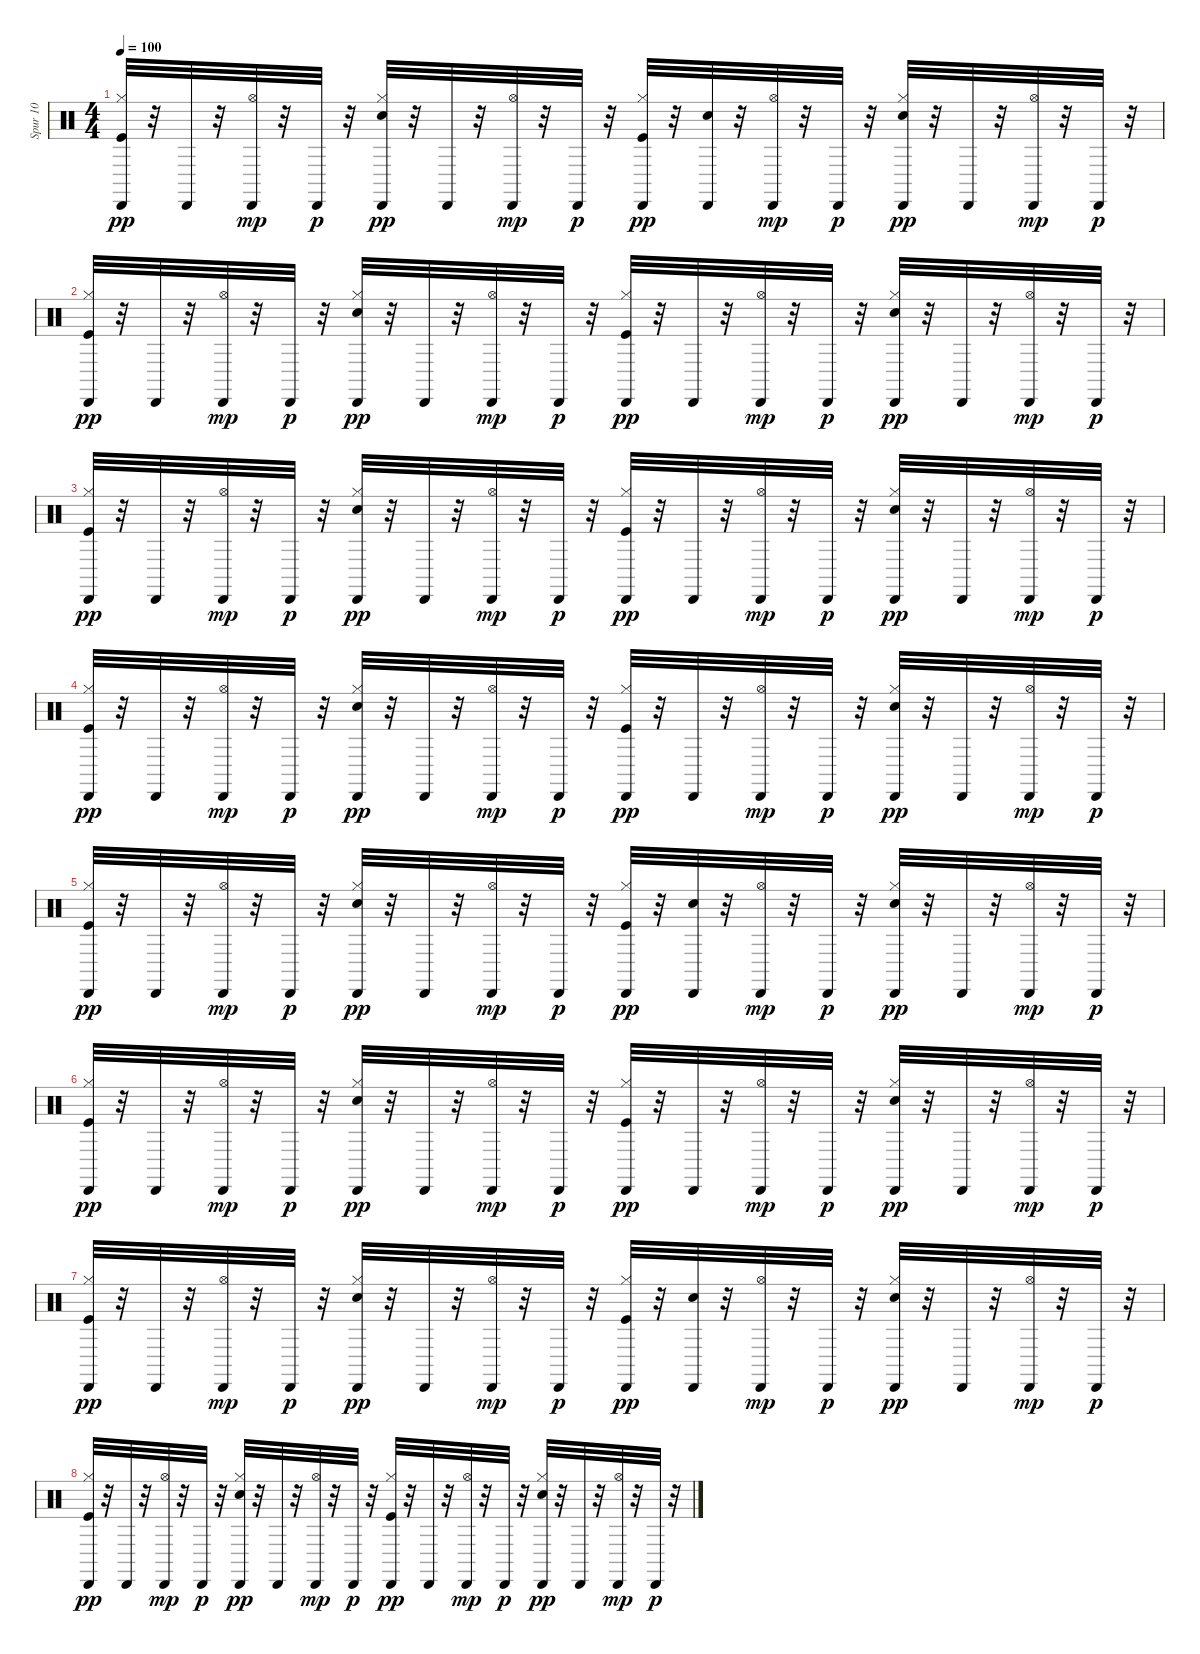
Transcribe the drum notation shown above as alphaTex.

\track ("Spur 10" "Spur 10") {instrument percussion}
\staff {score}
\articulation defaults
\ts (4 4)
\tempo 100
\clef neutral
\ks c
("Kick (hit)" "Hi-Hat (closed)" "Cabasa (hit)").32{dy pp} r.32 "Cabasa (hit)".32 r.32 ("Hi-Hat (open)" "Cabasa (hit)").32{dy mp} r.32 "Cabasa (hit)".32{dy p} r.32 ("Electric Snare (hit)" "Hi-Hat (closed)" "Cabasa (hit)").32{dy pp} r.32 "Cabasa (hit)".32 r.32 ("Hi-Hat (open)" "Cabasa (hit)").32{dy mp} r.32 "Cabasa (hit)".32{dy p} r.32 ("Kick (hit)" "Hi-Hat (closed)" "Cabasa (hit)").32{dy pp} r.32 ("Electric Snare (hit)" "Cabasa (hit)").32 r.32 ("Hi-Hat (open)" "Cabasa (hit)").32{dy mp} r.32 "Cabasa (hit)".32{dy p} r.32 ("Electric Snare (hit)" "Hi-Hat (closed)" "Cabasa (hit)").32{dy pp} r.32 "Cabasa (hit)".32 r.32 ("Hi-Hat (open)" "Cabasa (hit)").32{dy mp} r.32 "Cabasa (hit)".32{dy p} r.32 |
("Kick (hit)" "Hi-Hat (closed)" "Cabasa (hit)").32{dy pp} r.32 "Cabasa (hit)".32 r.32 ("Hi-Hat (open)" "Cabasa (hit)").32{dy mp} r.32 "Cabasa (hit)".32{dy p} r.32 ("Electric Snare (hit)" "Hi-Hat (closed)" "Cabasa (hit)").32{dy pp} r.32 "Cabasa (hit)".32 r.32 ("Hi-Hat (open)" "Cabasa (hit)").32{dy mp} r.32 "Cabasa (hit)".32{dy p} r.32 ("Kick (hit)" "Hi-Hat (closed)" "Cabasa (hit)").32{dy pp} r.32 "Cabasa (hit)".32 r.32 ("Hi-Hat (open)" "Cabasa (hit)").32{dy mp} r.32 "Cabasa (hit)".32{dy p} r.32 ("Electric Snare (hit)" "Hi-Hat (closed)" "Cabasa (hit)").32{dy pp} r.32 "Cabasa (hit)".32 r.32 ("Hi-Hat (open)" "Cabasa (hit)").32{dy mp} r.32 "Cabasa (hit)".32{dy p} r.32 |
("Kick (hit)" "Hi-Hat (closed)" "Cabasa (hit)").32{dy pp} r.32 "Cabasa (hit)".32 r.32 ("Hi-Hat (open)" "Cabasa (hit)").32{dy mp} r.32 "Cabasa (hit)".32{dy p} r.32 ("Electric Snare (hit)" "Hi-Hat (closed)" "Cabasa (hit)").32{dy pp} r.32 "Cabasa (hit)".32 r.32 ("Hi-Hat (open)" "Cabasa (hit)").32{dy mp} r.32 "Cabasa (hit)".32{dy p} r.32 ("Kick (hit)" "Hi-Hat (closed)" "Cabasa (hit)").32{dy pp} r.32 "Cabasa (hit)".32 r.32 ("Hi-Hat (open)" "Cabasa (hit)").32{dy mp} r.32 "Cabasa (hit)".32{dy p} r.32 ("Electric Snare (hit)" "Hi-Hat (closed)" "Cabasa (hit)").32{dy pp} r.32 "Cabasa (hit)".32 r.32 ("Hi-Hat (open)" "Cabasa (hit)").32{dy mp} r.32 "Cabasa (hit)".32{dy p} r.32 |
("Kick (hit)" "Hi-Hat (closed)" "Cabasa (hit)").32{dy pp} r.32 "Cabasa (hit)".32 r.32 ("Hi-Hat (open)" "Cabasa (hit)").32{dy mp} r.32 "Cabasa (hit)".32{dy p} r.32 ("Electric Snare (hit)" "Hi-Hat (closed)" "Cabasa (hit)").32{dy pp} r.32 "Cabasa (hit)".32 r.32 ("Hi-Hat (open)" "Cabasa (hit)").32{dy mp} r.32 "Cabasa (hit)".32{dy p} r.32 ("Kick (hit)" "Hi-Hat (closed)" "Cabasa (hit)").32{dy pp} r.32 "Cabasa (hit)".32 r.32 ("Hi-Hat (open)" "Cabasa (hit)").32{dy mp} r.32 "Cabasa (hit)".32{dy p} r.32 ("Electric Snare (hit)" "Hi-Hat (closed)" "Cabasa (hit)").32{dy pp} r.32 "Cabasa (hit)".32 r.32 ("Hi-Hat (open)" "Cabasa (hit)").32{dy mp} r.32 "Cabasa (hit)".32{dy p} r.32 |
("Kick (hit)" "Hi-Hat (closed)" "Cabasa (hit)").32{dy pp} r.32 "Cabasa (hit)".32 r.32 ("Hi-Hat (open)" "Cabasa (hit)").32{dy mp} r.32 "Cabasa (hit)".32{dy p} r.32 ("Electric Snare (hit)" "Hi-Hat (closed)" "Cabasa (hit)").32{dy pp} r.32 "Cabasa (hit)".32 r.32 ("Hi-Hat (open)" "Cabasa (hit)").32{dy mp} r.32 "Cabasa (hit)".32{dy p} r.32 ("Kick (hit)" "Hi-Hat (closed)" "Cabasa (hit)").32{dy pp} r.32 ("Electric Snare (hit)" "Cabasa (hit)").32 r.32 ("Hi-Hat (open)" "Cabasa (hit)").32{dy mp} r.32 "Cabasa (hit)".32{dy p} r.32 ("Electric Snare (hit)" "Hi-Hat (closed)" "Cabasa (hit)").32{dy pp} r.32 "Cabasa (hit)".32 r.32 ("Hi-Hat (open)" "Cabasa (hit)").32{dy mp} r.32 "Cabasa (hit)".32{dy p} r.32 |
("Kick (hit)" "Hi-Hat (closed)" "Cabasa (hit)").32{dy pp} r.32 "Cabasa (hit)".32 r.32 ("Hi-Hat (open)" "Cabasa (hit)").32{dy mp} r.32 "Cabasa (hit)".32{dy p} r.32 ("Electric Snare (hit)" "Hi-Hat (closed)" "Cabasa (hit)").32{dy pp} r.32 "Cabasa (hit)".32 r.32 ("Hi-Hat (open)" "Cabasa (hit)").32{dy mp} r.32 "Cabasa (hit)".32{dy p} r.32 ("Kick (hit)" "Hi-Hat (closed)" "Cabasa (hit)").32{dy pp} r.32 "Cabasa (hit)".32 r.32 ("Hi-Hat (open)" "Cabasa (hit)").32{dy mp} r.32 "Cabasa (hit)".32{dy p} r.32 ("Electric Snare (hit)" "Hi-Hat (closed)" "Cabasa (hit)").32{dy pp} r.32 "Cabasa (hit)".32 r.32 ("Hi-Hat (open)" "Cabasa (hit)").32{dy mp} r.32 "Cabasa (hit)".32{dy p} r.32 |
("Kick (hit)" "Hi-Hat (closed)" "Cabasa (hit)").32{dy pp} r.32 "Cabasa (hit)".32 r.32 ("Hi-Hat (open)" "Cabasa (hit)").32{dy mp} r.32 "Cabasa (hit)".32{dy p} r.32 ("Electric Snare (hit)" "Hi-Hat (closed)" "Cabasa (hit)").32{dy pp} r.32 "Cabasa (hit)".32 r.32 ("Hi-Hat (open)" "Cabasa (hit)").32{dy mp} r.32 "Cabasa (hit)".32{dy p} r.32 ("Kick (hit)" "Hi-Hat (closed)" "Cabasa (hit)").32{dy pp} r.32 ("Electric Snare (hit)" "Cabasa (hit)").32 r.32 ("Hi-Hat (open)" "Cabasa (hit)").32{dy mp} r.32 "Cabasa (hit)".32{dy p} r.32 ("Electric Snare (hit)" "Hi-Hat (closed)" "Cabasa (hit)").32{dy pp} r.32 "Cabasa (hit)".32 r.32 ("Hi-Hat (open)" "Cabasa (hit)").32{dy mp} r.32 "Cabasa (hit)".32{dy p} r.32 |
("Kick (hit)" "Hi-Hat (closed)" "Cabasa (hit)").32{dy pp} r.32 "Cabasa (hit)".32 r.32 ("Hi-Hat (open)" "Cabasa (hit)").32{dy mp} r.32 "Cabasa (hit)".32{dy p} r.32 ("Electric Snare (hit)" "Hi-Hat (closed)" "Cabasa (hit)").32{dy pp} r.32 "Cabasa (hit)".32 r.32 ("Hi-Hat (open)" "Cabasa (hit)").32{dy mp} r.32 "Cabasa (hit)".32{dy p} r.32 ("Kick (hit)" "Hi-Hat (closed)" "Cabasa (hit)").32{dy pp} r.32 "Cabasa (hit)".32 r.32 ("Hi-Hat (open)" "Cabasa (hit)").32{dy mp} r.32 "Cabasa (hit)".32{dy p} r.32 ("Electric Snare (hit)" "Hi-Hat (closed)" "Cabasa (hit)").32{dy pp} r.32 "Cabasa (hit)".32 r.32 ("Hi-Hat (open)" "Cabasa (hit)").32{dy mp} r.32 "Cabasa (hit)".32{dy p} r.32
